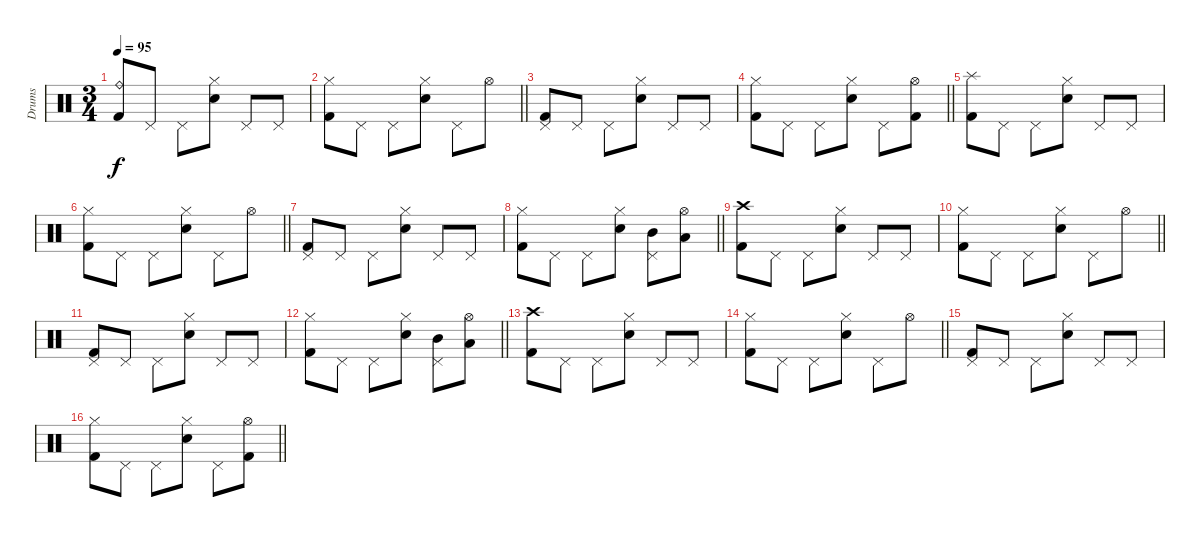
\track ("Drums" "Drums") {instrument percussion}
\staff {score}
\articulation defaults
\ts (3 4)
\tempo 95
\clef neutral
\ks c
("Ride (bell)" "Kick (hit) 2").8{dy f} "Pedal Hi-Hat (hit)".8 "Pedal Hi-Hat (hit)".8 ("Hi-Hat (closed)" "Snare (hit) 2").8 "Pedal Hi-Hat (hit)".8 "Pedal Hi-Hat (hit)".8 |
\barLineRight lightlight
("Hi-Hat (closed)" "Kick (hit) 2").8 "Pedal Hi-Hat (hit)".8 "Pedal Hi-Hat (hit)".8 ("Hi-Hat (closed)" "Snare (hit) 2").8 "Pedal Hi-Hat (hit)".8 "Hi-Hat (open)".8 |
("Pedal Hi-Hat (hit)" "Kick (hit) 2").8 "Pedal Hi-Hat (hit)".8 "Pedal Hi-Hat (hit)".8 ("Hi-Hat (closed)" "Snare (hit) 2").8 "Pedal Hi-Hat (hit)".8 "Pedal Hi-Hat (hit)".8 |
\barLineRight lightlight
("Hi-Hat (closed)" "Kick (hit) 2").8 "Pedal Hi-Hat (hit)".8 "Pedal Hi-Hat (hit)".8 ("Hi-Hat (closed)" "Snare (hit) 2").8 "Pedal Hi-Hat (hit)".8 ("Hi-Hat (open)" "Kick (hit) 2").8 |
("Splash (hit)" "Kick (hit) 2").8 "Pedal Hi-Hat (hit)".8 "Pedal Hi-Hat (hit)".8 ("Hi-Hat (closed)" "Snare (hit) 2").8 "Pedal Hi-Hat (hit)".8 "Pedal Hi-Hat (hit)".8 |
\barLineRight lightlight
("Hi-Hat (closed)" "Kick (hit) 2").8 "Pedal Hi-Hat (hit)".8 "Pedal Hi-Hat (hit)".8 ("Hi-Hat (closed)" "Snare (hit) 2").8 "Pedal Hi-Hat (hit)".8 "Hi-Hat (open)".8 |
("Pedal Hi-Hat (hit)" "Kick (hit) 2").8 "Pedal Hi-Hat (hit)".8 "Pedal Hi-Hat (hit)".8 ("Hi-Hat (closed)" "Snare (hit) 2").8 "Pedal Hi-Hat (hit)".8 "Pedal Hi-Hat (hit)".8 |
\barLineRight lightlight
("Hi-Hat (closed)" "Kick (hit) 2").8 "Pedal Hi-Hat (hit)".8 "Pedal Hi-Hat (hit)".8 ("Hi-Hat (closed)" "Snare (hit) 2").8 ("Pedal Hi-Hat (hit)" "Mid Tom (hit)").8 ("Hi-Hat (open)" "Low Tom (hit)").8 |
("Crash high (hit)" "Kick (hit) 2").8 "Pedal Hi-Hat (hit)".8 "Pedal Hi-Hat (hit)".8 ("Hi-Hat (closed)" "Snare (hit) 2").8 "Pedal Hi-Hat (hit)".8 "Pedal Hi-Hat (hit)".8 |
\barLineRight lightlight
("Hi-Hat (closed)" "Kick (hit) 2").8 "Pedal Hi-Hat (hit)".8 "Pedal Hi-Hat (hit)".8 ("Hi-Hat (closed)" "Snare (hit) 2").8 "Pedal Hi-Hat (hit)".8 "Hi-Hat (open)".8 |
("Pedal Hi-Hat (hit)" "Kick (hit) 2").8 "Pedal Hi-Hat (hit)".8 "Pedal Hi-Hat (hit)".8 ("Hi-Hat (closed)" "Snare (hit) 2").8 "Pedal Hi-Hat (hit)".8 "Pedal Hi-Hat (hit)".8 |
\barLineRight lightlight
("Hi-Hat (closed)" "Kick (hit) 2").8 "Pedal Hi-Hat (hit)".8 "Pedal Hi-Hat (hit)".8 ("Hi-Hat (closed)" "Snare (hit) 2").8 ("Pedal Hi-Hat (hit)" "Mid Tom (hit)").8 ("Hi-Hat (open)" "Low Tom (hit)").8 |
("Crash high (hit)" "Kick (hit) 2").8 "Pedal Hi-Hat (hit)".8 "Pedal Hi-Hat (hit)".8 ("Hi-Hat (closed)" "Snare (hit) 2").8 "Pedal Hi-Hat (hit)".8 "Pedal Hi-Hat (hit)".8 |
\barLineRight lightlight
("Hi-Hat (closed)" "Kick (hit) 2").8 "Pedal Hi-Hat (hit)".8 "Pedal Hi-Hat (hit)".8 ("Hi-Hat (closed)" "Snare (hit) 2").8 "Pedal Hi-Hat (hit)".8 "Hi-Hat (open)".8 |
("Pedal Hi-Hat (hit)" "Kick (hit) 2").8 "Pedal Hi-Hat (hit)".8 "Pedal Hi-Hat (hit)".8 ("Hi-Hat (closed)" "Snare (hit) 2").8 "Pedal Hi-Hat (hit)".8 "Pedal Hi-Hat (hit)".8 |
\barLineRight lightlight
("Hi-Hat (closed)" "Kick (hit) 2").8 "Pedal Hi-Hat (hit)".8 "Pedal Hi-Hat (hit)".8 ("Hi-Hat (closed)" "Snare (hit) 2").8 "Pedal Hi-Hat (hit)".8 ("Hi-Hat (open)" "Kick (hit) 2").8
